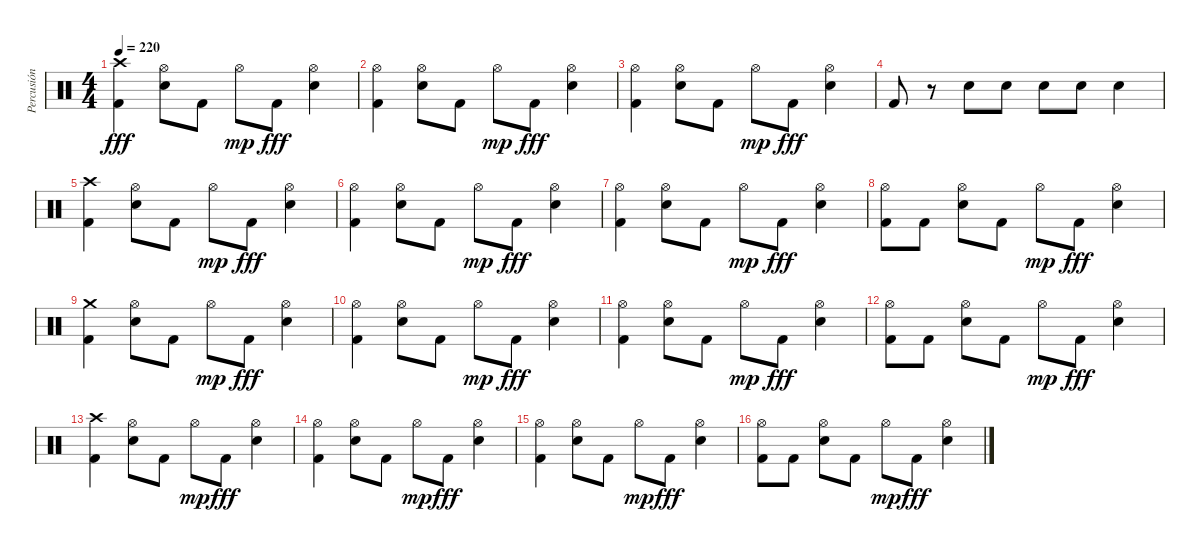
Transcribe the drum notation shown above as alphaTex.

\track ("Percusión" "Percusión") {instrument percussion}
\staff {score}
\articulation defaults
\ts (4 4)
\tempo 220
\clef neutral
\ks c
("Crash high (hit)" "Kick (hit) 2").4{dy fff} ("Hi-Hat (open)" "Snare (hit) 2").8 "Kick (hit) 2".8 "Hi-Hat (open)".8{dy mp} "Kick (hit) 2".8{dy fff} ("Hi-Hat (open)" "Snare (hit) 2").4 |
("Hi-Hat (open)" "Kick (hit) 2").4 ("Hi-Hat (open)" "Snare (hit) 2").8 "Kick (hit) 2".8 "Hi-Hat (open)".8{dy mp} "Kick (hit) 2".8{dy fff} ("Hi-Hat (open)" "Snare (hit) 2").4 |
("Hi-Hat (open)" "Kick (hit) 2").4 ("Hi-Hat (open)" "Snare (hit) 2").8 "Kick (hit) 2".8 "Hi-Hat (open)".8{dy mp} "Kick (hit) 2".8{dy fff} ("Hi-Hat (open)" "Snare (hit) 2").4 |
"Kick (hit) 2".8 r.8 "Snare (hit) 2".8 "Snare (hit) 2".8 "Snare (hit) 2".8 "Snare (hit) 2".8 "Snare (hit) 2".4 |
("Crash high (hit)" "Kick (hit) 2").4 ("Hi-Hat (open)" "Snare (hit) 2").8 "Kick (hit) 2".8 "Hi-Hat (open)".8{dy mp} "Kick (hit) 2".8{dy fff} ("Hi-Hat (open)" "Snare (hit) 2").4 |
("Hi-Hat (open)" "Kick (hit) 2").4 ("Hi-Hat (open)" "Snare (hit) 2").8 "Kick (hit) 2".8 "Hi-Hat (open)".8{dy mp} "Kick (hit) 2".8{dy fff} ("Hi-Hat (open)" "Snare (hit) 2").4 |
("Hi-Hat (open)" "Kick (hit) 2").4 ("Hi-Hat (open)" "Snare (hit) 2").8 "Kick (hit) 2".8 "Hi-Hat (open)".8{dy mp} "Kick (hit) 2".8{dy fff} ("Hi-Hat (open)" "Snare (hit) 2").4 |
("Hi-Hat (open)" "Kick (hit) 2").8 "Kick (hit) 2".8 ("Hi-Hat (open)" "Snare (hit) 2").8 "Kick (hit) 2".8 "Hi-Hat (open)".8{dy mp} "Kick (hit) 2".8{dy fff} ("Hi-Hat (open)" "Snare (hit) 2").4 |
("Crash medium (hit)" "Kick (hit) 2").4 ("Hi-Hat (open)" "Snare (hit) 2").8 "Kick (hit) 2".8 "Hi-Hat (open)".8{dy mp} "Kick (hit) 2".8{dy fff} ("Hi-Hat (open)" "Snare (hit) 2").4 |
("Hi-Hat (open)" "Kick (hit) 2").4 ("Hi-Hat (open)" "Snare (hit) 2").8 "Kick (hit) 2".8 "Hi-Hat (open)".8{dy mp} "Kick (hit) 2".8{dy fff} ("Hi-Hat (open)" "Snare (hit) 2").4 |
("Hi-Hat (open)" "Kick (hit) 2").4 ("Hi-Hat (open)" "Snare (hit) 2").8 "Kick (hit) 2".8 "Hi-Hat (open)".8{dy mp} "Kick (hit) 2".8{dy fff} ("Hi-Hat (open)" "Snare (hit) 2").4 |
("Hi-Hat (open)" "Kick (hit) 2").8 "Kick (hit) 2".8 ("Hi-Hat (open)" "Snare (hit) 2").8 "Kick (hit) 2".8 "Hi-Hat (open)".8{dy mp} "Kick (hit) 2".8{dy fff} ("Hi-Hat (open)" "Snare (hit) 2").4 |
("Crash high (hit)" "Kick (hit) 2").4 ("Hi-Hat (open)" "Snare (hit) 2").8 "Kick (hit) 2".8 "Hi-Hat (open)".8{dy mp} "Kick (hit) 2".8{dy fff} ("Hi-Hat (open)" "Snare (hit) 2").4 |
("Hi-Hat (open)" "Kick (hit) 2").4 ("Hi-Hat (open)" "Snare (hit) 2").8 "Kick (hit) 2".8 "Hi-Hat (open)".8{dy mp} "Kick (hit) 2".8{dy fff} ("Hi-Hat (open)" "Snare (hit) 2").4 |
("Hi-Hat (open)" "Kick (hit) 2").4 ("Hi-Hat (open)" "Snare (hit) 2").8 "Kick (hit) 2".8 "Hi-Hat (open)".8{dy mp} "Kick (hit) 2".8{dy fff} ("Hi-Hat (open)" "Snare (hit) 2").4 |
("Hi-Hat (open)" "Kick (hit) 2").8 "Kick (hit) 2".8 ("Hi-Hat (open)" "Snare (hit) 2").8 "Kick (hit) 2".8 "Hi-Hat (open)".8{dy mp} "Kick (hit) 2".8{dy fff} ("Hi-Hat (open)" "Snare (hit) 2").4
